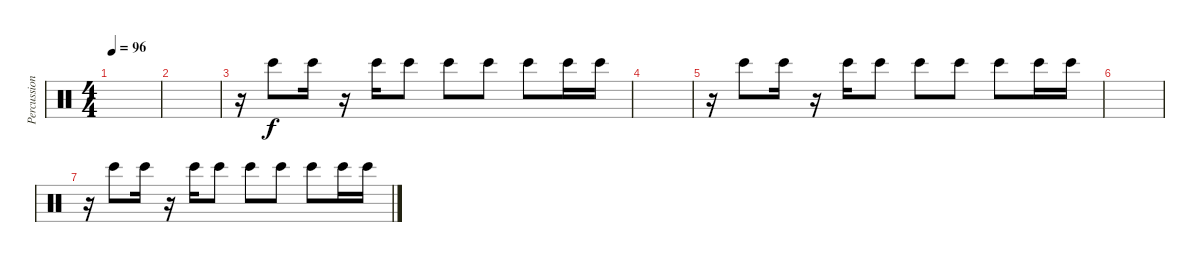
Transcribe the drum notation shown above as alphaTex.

\track ("Percussions alto" "Percussion") {instrument percussion}
\staff {score}
\articulation defaults
\ts (4 4)
\tempo 96
\clef neutral
\ks c
|
|
r.16 "Bongo High (hit)".8 "Bongo High (hit)".16 r.16 "Bongo High (hit)".16 "Bongo High (hit)".8 "Bongo High (hit)".8 "Bongo High (hit)".8 "Bongo High (hit)".8 "Bongo High (hit)".16 "Bongo High (hit)".16 |
|
r.16 "Bongo High (hit)".8 "Bongo High (hit)".16 r.16 "Bongo High (hit)".16 "Bongo High (hit)".8 "Bongo High (hit)".8 "Bongo High (hit)".8 "Bongo High (hit)".8 "Bongo High (hit)".16 "Bongo High (hit)".16 |
|
r.16 "Bongo High (hit)".8 "Bongo High (hit)".16 r.16 "Bongo High (hit)".16 "Bongo High (hit)".8 "Bongo High (hit)".8 "Bongo High (hit)".8 "Bongo High (hit)".8 "Bongo High (hit)".16 "Bongo High (hit)".16
